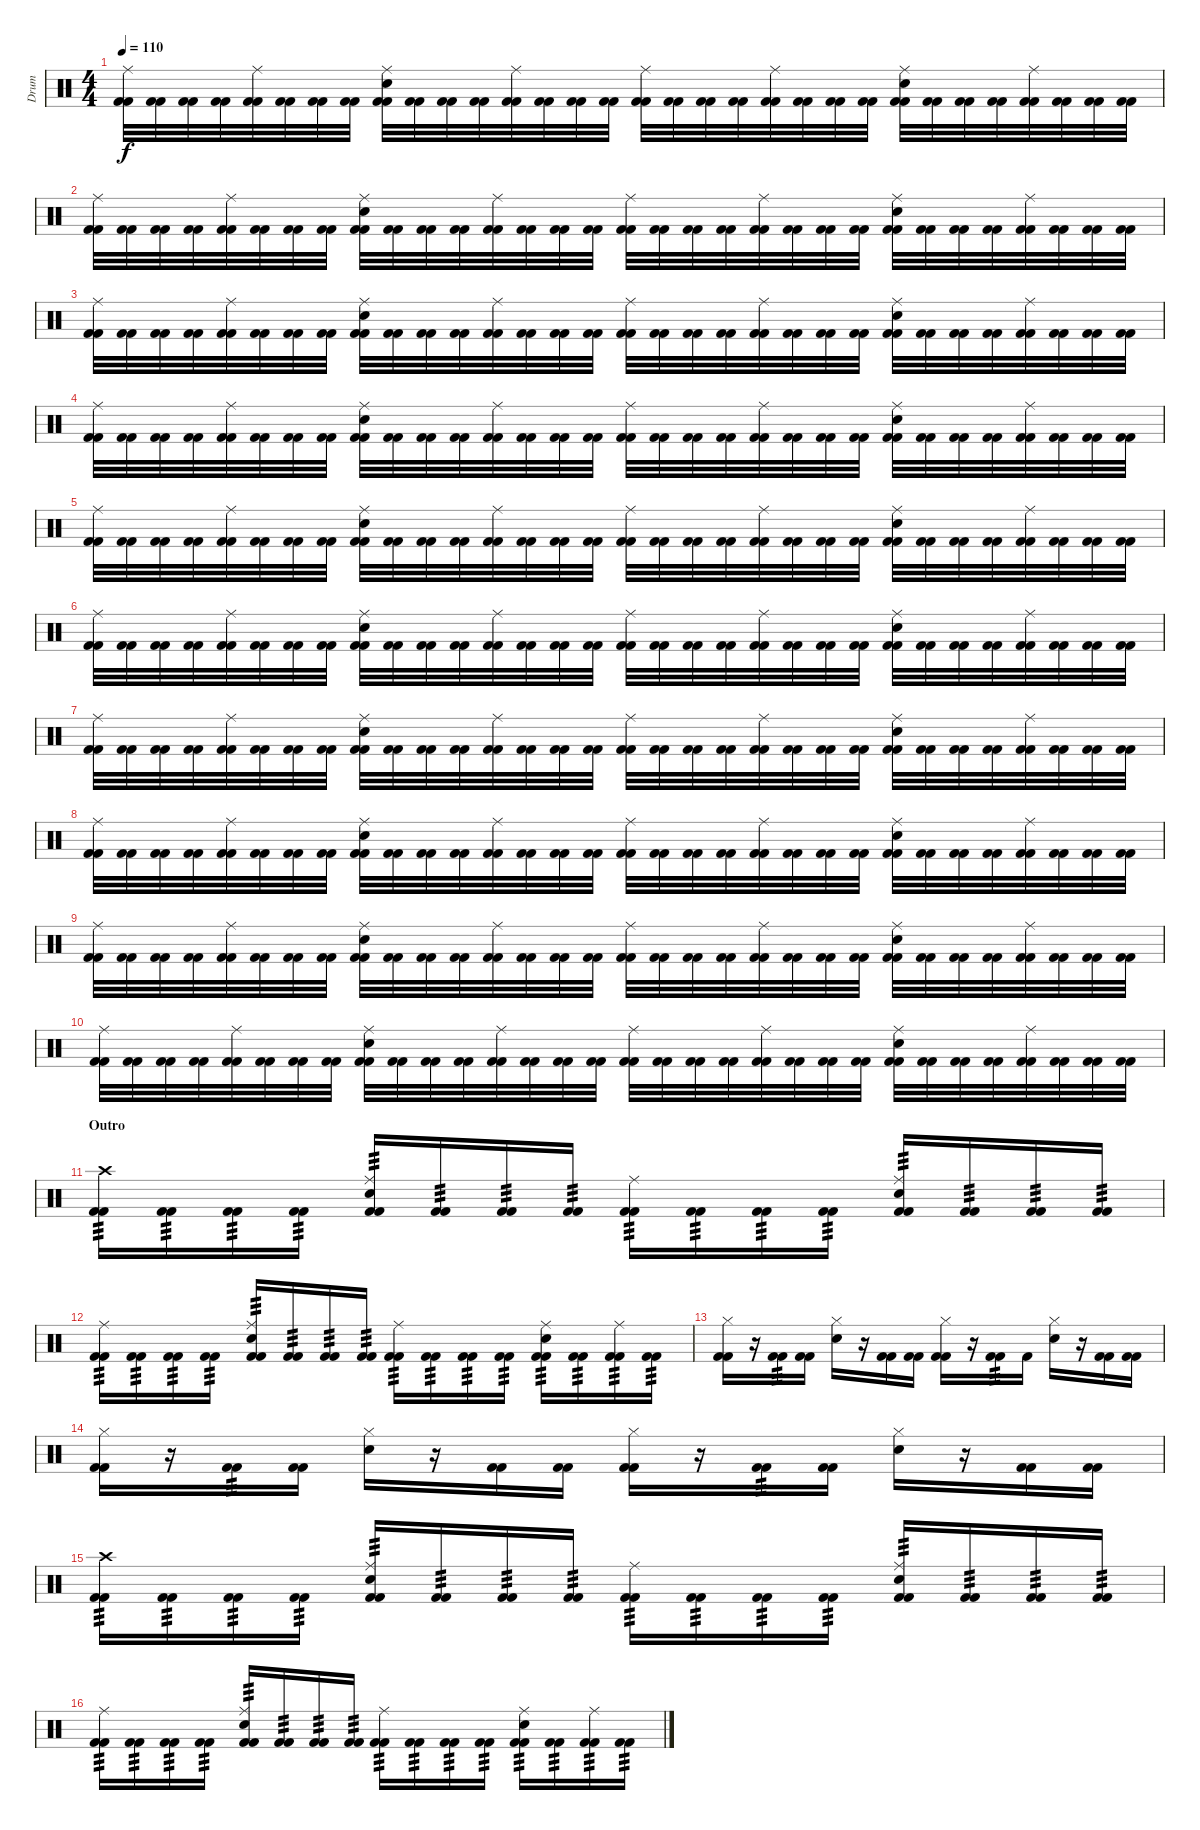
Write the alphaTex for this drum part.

\track ("Drum" "Drum") {instrument percussion}
\staff {score}
\articulation defaults
\ts (4 4)
\tempo 110
\clef neutral
\ks c
("Kick (hit) 2" "Kick (hit) 2" "Ride (middle)").32{dy f} ("Kick (hit) 2" "Kick (hit) 2").32 ("Kick (hit) 2" "Kick (hit) 2").32 ("Kick (hit) 2" "Kick (hit) 2").32 ("Kick (hit) 2" "Kick (hit) 2" "Ride (middle)").32 ("Kick (hit) 2" "Kick (hit) 2").32 ("Kick (hit) 2" "Kick (hit) 2").32 ("Kick (hit) 2" "Kick (hit) 2").32 ("Kick (hit) 2" "Kick (hit) 2" "Electric Snare (hit)" "Ride (middle)").32 ("Kick (hit) 2" "Kick (hit) 2").32 ("Kick (hit) 2" "Kick (hit) 2").32 ("Kick (hit) 2" "Kick (hit) 2").32 ("Kick (hit) 2" "Kick (hit) 2" "Ride (middle)").32 ("Kick (hit) 2" "Kick (hit) 2").32 ("Kick (hit) 2" "Kick (hit) 2").32 ("Kick (hit) 2" "Kick (hit) 2").32 ("Kick (hit) 2" "Kick (hit) 2" "Ride (middle)").32 ("Kick (hit) 2" "Kick (hit) 2").32 ("Kick (hit) 2" "Kick (hit) 2").32 ("Kick (hit) 2" "Kick (hit) 2").32 ("Kick (hit) 2" "Kick (hit) 2" "Ride (middle)").32 ("Kick (hit) 2" "Kick (hit) 2").32 ("Kick (hit) 2" "Kick (hit) 2").32 ("Kick (hit) 2" "Kick (hit) 2").32 ("Kick (hit) 2" "Kick (hit) 2" "Electric Snare (hit)" "Ride (middle)").32 ("Kick (hit) 2" "Kick (hit) 2").32 ("Kick (hit) 2" "Kick (hit) 2").32 ("Kick (hit) 2" "Kick (hit) 2").32 ("Kick (hit) 2" "Kick (hit) 2" "Ride (middle)").32 ("Kick (hit) 2" "Kick (hit) 2").32 ("Kick (hit) 2" "Kick (hit) 2").32 ("Kick (hit) 2" "Kick (hit) 2").32 |
("Kick (hit) 2" "Kick (hit) 2" "Ride (middle)").32 ("Kick (hit) 2" "Kick (hit) 2").32 ("Kick (hit) 2" "Kick (hit) 2").32 ("Kick (hit) 2" "Kick (hit) 2").32 ("Kick (hit) 2" "Kick (hit) 2" "Ride (middle)").32 ("Kick (hit) 2" "Kick (hit) 2").32 ("Kick (hit) 2" "Kick (hit) 2").32 ("Kick (hit) 2" "Kick (hit) 2").32 ("Kick (hit) 2" "Kick (hit) 2" "Electric Snare (hit)" "Ride (middle)").32 ("Kick (hit) 2" "Kick (hit) 2").32 ("Kick (hit) 2" "Kick (hit) 2").32 ("Kick (hit) 2" "Kick (hit) 2").32 ("Kick (hit) 2" "Kick (hit) 2" "Ride (middle)").32 ("Kick (hit) 2" "Kick (hit) 2").32 ("Kick (hit) 2" "Kick (hit) 2").32 ("Kick (hit) 2" "Kick (hit) 2").32 ("Kick (hit) 2" "Kick (hit) 2" "Ride (middle)").32 ("Kick (hit) 2" "Kick (hit) 2").32 ("Kick (hit) 2" "Kick (hit) 2").32 ("Kick (hit) 2" "Kick (hit) 2").32 ("Kick (hit) 2" "Kick (hit) 2" "Ride (middle)").32 ("Kick (hit) 2" "Kick (hit) 2").32 ("Kick (hit) 2" "Kick (hit) 2").32 ("Kick (hit) 2" "Kick (hit) 2").32 ("Kick (hit) 2" "Kick (hit) 2" "Electric Snare (hit)" "Ride (middle)").32 ("Kick (hit) 2" "Kick (hit) 2").32 ("Kick (hit) 2" "Kick (hit) 2").32 ("Kick (hit) 2" "Kick (hit) 2").32 ("Kick (hit) 2" "Kick (hit) 2" "Ride (middle)").32 ("Kick (hit) 2" "Kick (hit) 2").32 ("Kick (hit) 2" "Kick (hit) 2").32 ("Kick (hit) 2" "Kick (hit) 2").32 |
("Kick (hit) 2" "Kick (hit) 2" "Ride (middle)").32 ("Kick (hit) 2" "Kick (hit) 2").32 ("Kick (hit) 2" "Kick (hit) 2").32 ("Kick (hit) 2" "Kick (hit) 2").32 ("Kick (hit) 2" "Kick (hit) 2" "Ride (middle)").32 ("Kick (hit) 2" "Kick (hit) 2").32 ("Kick (hit) 2" "Kick (hit) 2").32 ("Kick (hit) 2" "Kick (hit) 2").32 ("Kick (hit) 2" "Kick (hit) 2" "Electric Snare (hit)" "Ride (middle)").32 ("Kick (hit) 2" "Kick (hit) 2").32 ("Kick (hit) 2" "Kick (hit) 2").32 ("Kick (hit) 2" "Kick (hit) 2").32 ("Kick (hit) 2" "Kick (hit) 2" "Ride (middle)").32 ("Kick (hit) 2" "Kick (hit) 2").32 ("Kick (hit) 2" "Kick (hit) 2").32 ("Kick (hit) 2" "Kick (hit) 2").32 ("Kick (hit) 2" "Kick (hit) 2" "Ride (middle)").32 ("Kick (hit) 2" "Kick (hit) 2").32 ("Kick (hit) 2" "Kick (hit) 2").32 ("Kick (hit) 2" "Kick (hit) 2").32 ("Kick (hit) 2" "Kick (hit) 2" "Ride (middle)").32 ("Kick (hit) 2" "Kick (hit) 2").32 ("Kick (hit) 2" "Kick (hit) 2").32 ("Kick (hit) 2" "Kick (hit) 2").32 ("Kick (hit) 2" "Kick (hit) 2" "Electric Snare (hit)" "Ride (middle)").32 ("Kick (hit) 2" "Kick (hit) 2").32 ("Kick (hit) 2" "Kick (hit) 2").32 ("Kick (hit) 2" "Kick (hit) 2").32 ("Kick (hit) 2" "Kick (hit) 2" "Ride (middle)").32 ("Kick (hit) 2" "Kick (hit) 2").32 ("Kick (hit) 2" "Kick (hit) 2").32 ("Kick (hit) 2" "Kick (hit) 2").32 |
("Kick (hit) 2" "Kick (hit) 2" "Ride (middle)").32 ("Kick (hit) 2" "Kick (hit) 2").32 ("Kick (hit) 2" "Kick (hit) 2").32 ("Kick (hit) 2" "Kick (hit) 2").32 ("Kick (hit) 2" "Kick (hit) 2" "Ride (middle)").32 ("Kick (hit) 2" "Kick (hit) 2").32 ("Kick (hit) 2" "Kick (hit) 2").32 ("Kick (hit) 2" "Kick (hit) 2").32 ("Kick (hit) 2" "Kick (hit) 2" "Electric Snare (hit)" "Ride (middle)").32 ("Kick (hit) 2" "Kick (hit) 2").32 ("Kick (hit) 2" "Kick (hit) 2").32 ("Kick (hit) 2" "Kick (hit) 2").32 ("Kick (hit) 2" "Kick (hit) 2" "Ride (middle)").32 ("Kick (hit) 2" "Kick (hit) 2").32 ("Kick (hit) 2" "Kick (hit) 2").32 ("Kick (hit) 2" "Kick (hit) 2").32 ("Kick (hit) 2" "Kick (hit) 2" "Ride (middle)").32 ("Kick (hit) 2" "Kick (hit) 2").32 ("Kick (hit) 2" "Kick (hit) 2").32 ("Kick (hit) 2" "Kick (hit) 2").32 ("Kick (hit) 2" "Kick (hit) 2" "Ride (middle)").32 ("Kick (hit) 2" "Kick (hit) 2").32 ("Kick (hit) 2" "Kick (hit) 2").32 ("Kick (hit) 2" "Kick (hit) 2").32 ("Kick (hit) 2" "Kick (hit) 2" "Electric Snare (hit)" "Ride (middle)").32 ("Kick (hit) 2" "Kick (hit) 2").32 ("Kick (hit) 2" "Kick (hit) 2").32 ("Kick (hit) 2" "Kick (hit) 2").32 ("Kick (hit) 2" "Kick (hit) 2" "Ride (middle)").32 ("Kick (hit) 2" "Kick (hit) 2").32 ("Kick (hit) 2" "Kick (hit) 2").32 ("Kick (hit) 2" "Kick (hit) 2").32 |
("Kick (hit) 2" "Kick (hit) 2" "Ride (middle)").32 ("Kick (hit) 2" "Kick (hit) 2").32 ("Kick (hit) 2" "Kick (hit) 2").32 ("Kick (hit) 2" "Kick (hit) 2").32 ("Kick (hit) 2" "Kick (hit) 2" "Ride (middle)").32 ("Kick (hit) 2" "Kick (hit) 2").32 ("Kick (hit) 2" "Kick (hit) 2").32 ("Kick (hit) 2" "Kick (hit) 2").32 ("Kick (hit) 2" "Kick (hit) 2" "Electric Snare (hit)" "Ride (middle)").32 ("Kick (hit) 2" "Kick (hit) 2").32 ("Kick (hit) 2" "Kick (hit) 2").32 ("Kick (hit) 2" "Kick (hit) 2").32 ("Kick (hit) 2" "Kick (hit) 2" "Ride (middle)").32 ("Kick (hit) 2" "Kick (hit) 2").32 ("Kick (hit) 2" "Kick (hit) 2").32 ("Kick (hit) 2" "Kick (hit) 2").32 ("Kick (hit) 2" "Kick (hit) 2" "Ride (middle)").32 ("Kick (hit) 2" "Kick (hit) 2").32 ("Kick (hit) 2" "Kick (hit) 2").32 ("Kick (hit) 2" "Kick (hit) 2").32 ("Kick (hit) 2" "Kick (hit) 2" "Ride (middle)").32 ("Kick (hit) 2" "Kick (hit) 2").32 ("Kick (hit) 2" "Kick (hit) 2").32 ("Kick (hit) 2" "Kick (hit) 2").32 ("Kick (hit) 2" "Kick (hit) 2" "Electric Snare (hit)" "Ride (middle)").32 ("Kick (hit) 2" "Kick (hit) 2").32 ("Kick (hit) 2" "Kick (hit) 2").32 ("Kick (hit) 2" "Kick (hit) 2").32 ("Kick (hit) 2" "Kick (hit) 2" "Ride (middle)").32 ("Kick (hit) 2" "Kick (hit) 2").32 ("Kick (hit) 2" "Kick (hit) 2").32 ("Kick (hit) 2" "Kick (hit) 2").32 |
("Kick (hit) 2" "Kick (hit) 2" "Ride (middle)").32 ("Kick (hit) 2" "Kick (hit) 2").32 ("Kick (hit) 2" "Kick (hit) 2").32 ("Kick (hit) 2" "Kick (hit) 2").32 ("Kick (hit) 2" "Kick (hit) 2" "Ride (middle)").32 ("Kick (hit) 2" "Kick (hit) 2").32 ("Kick (hit) 2" "Kick (hit) 2").32 ("Kick (hit) 2" "Kick (hit) 2").32 ("Kick (hit) 2" "Kick (hit) 2" "Electric Snare (hit)" "Ride (middle)").32 ("Kick (hit) 2" "Kick (hit) 2").32 ("Kick (hit) 2" "Kick (hit) 2").32 ("Kick (hit) 2" "Kick (hit) 2").32 ("Kick (hit) 2" "Kick (hit) 2" "Ride (middle)").32 ("Kick (hit) 2" "Kick (hit) 2").32 ("Kick (hit) 2" "Kick (hit) 2").32 ("Kick (hit) 2" "Kick (hit) 2").32 ("Kick (hit) 2" "Kick (hit) 2" "Ride (middle)").32 ("Kick (hit) 2" "Kick (hit) 2").32 ("Kick (hit) 2" "Kick (hit) 2").32 ("Kick (hit) 2" "Kick (hit) 2").32 ("Kick (hit) 2" "Kick (hit) 2" "Ride (middle)").32 ("Kick (hit) 2" "Kick (hit) 2").32 ("Kick (hit) 2" "Kick (hit) 2").32 ("Kick (hit) 2" "Kick (hit) 2").32 ("Kick (hit) 2" "Kick (hit) 2" "Electric Snare (hit)" "Ride (middle)").32 ("Kick (hit) 2" "Kick (hit) 2").32 ("Kick (hit) 2" "Kick (hit) 2").32 ("Kick (hit) 2" "Kick (hit) 2").32 ("Kick (hit) 2" "Kick (hit) 2" "Ride (middle)").32 ("Kick (hit) 2" "Kick (hit) 2").32 ("Kick (hit) 2" "Kick (hit) 2").32 ("Kick (hit) 2" "Kick (hit) 2").32 |
("Kick (hit) 2" "Kick (hit) 2" "Ride (middle)").32 ("Kick (hit) 2" "Kick (hit) 2").32 ("Kick (hit) 2" "Kick (hit) 2").32 ("Kick (hit) 2" "Kick (hit) 2").32 ("Kick (hit) 2" "Kick (hit) 2" "Ride (middle)").32 ("Kick (hit) 2" "Kick (hit) 2").32 ("Kick (hit) 2" "Kick (hit) 2").32 ("Kick (hit) 2" "Kick (hit) 2").32 ("Kick (hit) 2" "Kick (hit) 2" "Electric Snare (hit)" "Ride (middle)").32 ("Kick (hit) 2" "Kick (hit) 2").32 ("Kick (hit) 2" "Kick (hit) 2").32 ("Kick (hit) 2" "Kick (hit) 2").32 ("Kick (hit) 2" "Kick (hit) 2" "Ride (middle)").32 ("Kick (hit) 2" "Kick (hit) 2").32 ("Kick (hit) 2" "Kick (hit) 2").32 ("Kick (hit) 2" "Kick (hit) 2").32 ("Kick (hit) 2" "Kick (hit) 2" "Ride (middle)").32 ("Kick (hit) 2" "Kick (hit) 2").32 ("Kick (hit) 2" "Kick (hit) 2").32 ("Kick (hit) 2" "Kick (hit) 2").32 ("Kick (hit) 2" "Kick (hit) 2" "Ride (middle)").32 ("Kick (hit) 2" "Kick (hit) 2").32 ("Kick (hit) 2" "Kick (hit) 2").32 ("Kick (hit) 2" "Kick (hit) 2").32 ("Kick (hit) 2" "Kick (hit) 2" "Electric Snare (hit)" "Ride (middle)").32 ("Kick (hit) 2" "Kick (hit) 2").32 ("Kick (hit) 2" "Kick (hit) 2").32 ("Kick (hit) 2" "Kick (hit) 2").32 ("Kick (hit) 2" "Kick (hit) 2" "Ride (middle)").32 ("Kick (hit) 2" "Kick (hit) 2").32 ("Kick (hit) 2" "Kick (hit) 2").32 ("Kick (hit) 2" "Kick (hit) 2").32 |
("Kick (hit) 2" "Kick (hit) 2" "Ride (middle)").32 ("Kick (hit) 2" "Kick (hit) 2").32 ("Kick (hit) 2" "Kick (hit) 2").32 ("Kick (hit) 2" "Kick (hit) 2").32 ("Kick (hit) 2" "Kick (hit) 2" "Ride (middle)").32 ("Kick (hit) 2" "Kick (hit) 2").32 ("Kick (hit) 2" "Kick (hit) 2").32 ("Kick (hit) 2" "Kick (hit) 2").32 ("Kick (hit) 2" "Kick (hit) 2" "Electric Snare (hit)" "Ride (middle)").32 ("Kick (hit) 2" "Kick (hit) 2").32 ("Kick (hit) 2" "Kick (hit) 2").32 ("Kick (hit) 2" "Kick (hit) 2").32 ("Kick (hit) 2" "Kick (hit) 2" "Ride (middle)").32 ("Kick (hit) 2" "Kick (hit) 2").32 ("Kick (hit) 2" "Kick (hit) 2").32 ("Kick (hit) 2" "Kick (hit) 2").32 ("Kick (hit) 2" "Kick (hit) 2" "Ride (middle)").32 ("Kick (hit) 2" "Kick (hit) 2").32 ("Kick (hit) 2" "Kick (hit) 2").32 ("Kick (hit) 2" "Kick (hit) 2").32 ("Kick (hit) 2" "Kick (hit) 2" "Ride (middle)").32 ("Kick (hit) 2" "Kick (hit) 2").32 ("Kick (hit) 2" "Kick (hit) 2").32 ("Kick (hit) 2" "Kick (hit) 2").32 ("Kick (hit) 2" "Kick (hit) 2" "Electric Snare (hit)" "Ride (middle)").32 ("Kick (hit) 2" "Kick (hit) 2").32 ("Kick (hit) 2" "Kick (hit) 2").32 ("Kick (hit) 2" "Kick (hit) 2").32 ("Kick (hit) 2" "Kick (hit) 2" "Ride (middle)").32 ("Kick (hit) 2" "Kick (hit) 2").32 ("Kick (hit) 2" "Kick (hit) 2").32 ("Kick (hit) 2" "Kick (hit) 2").32 |
("Kick (hit) 2" "Kick (hit) 2" "Ride (middle)").32 ("Kick (hit) 2" "Kick (hit) 2").32 ("Kick (hit) 2" "Kick (hit) 2").32 ("Kick (hit) 2" "Kick (hit) 2").32 ("Kick (hit) 2" "Kick (hit) 2" "Ride (middle)").32 ("Kick (hit) 2" "Kick (hit) 2").32 ("Kick (hit) 2" "Kick (hit) 2").32 ("Kick (hit) 2" "Kick (hit) 2").32 ("Kick (hit) 2" "Kick (hit) 2" "Electric Snare (hit)" "Ride (middle)").32 ("Kick (hit) 2" "Kick (hit) 2").32 ("Kick (hit) 2" "Kick (hit) 2").32 ("Kick (hit) 2" "Kick (hit) 2").32 ("Kick (hit) 2" "Kick (hit) 2" "Ride (middle)").32 ("Kick (hit) 2" "Kick (hit) 2").32 ("Kick (hit) 2" "Kick (hit) 2").32 ("Kick (hit) 2" "Kick (hit) 2").32 ("Kick (hit) 2" "Kick (hit) 2" "Ride (middle)").32 ("Kick (hit) 2" "Kick (hit) 2").32 ("Kick (hit) 2" "Kick (hit) 2").32 ("Kick (hit) 2" "Kick (hit) 2").32 ("Kick (hit) 2" "Kick (hit) 2" "Ride (middle)").32 ("Kick (hit) 2" "Kick (hit) 2").32 ("Kick (hit) 2" "Kick (hit) 2").32 ("Kick (hit) 2" "Kick (hit) 2").32 ("Kick (hit) 2" "Kick (hit) 2" "Electric Snare (hit)" "Ride (middle)").32 ("Kick (hit) 2" "Kick (hit) 2").32 ("Kick (hit) 2" "Kick (hit) 2").32 ("Kick (hit) 2" "Kick (hit) 2").32 ("Kick (hit) 2" "Kick (hit) 2" "Ride (middle)").32 ("Kick (hit) 2" "Kick (hit) 2").32 ("Kick (hit) 2" "Kick (hit) 2").32 ("Kick (hit) 2" "Kick (hit) 2").32 |
("Kick (hit) 2" "Kick (hit) 2" "Ride (middle)").32 ("Kick (hit) 2" "Kick (hit) 2").32 ("Kick (hit) 2" "Kick (hit) 2").32 ("Kick (hit) 2" "Kick (hit) 2").32 ("Kick (hit) 2" "Kick (hit) 2" "Ride (middle)").32 ("Kick (hit) 2" "Kick (hit) 2").32 ("Kick (hit) 2" "Kick (hit) 2").32 ("Kick (hit) 2" "Kick (hit) 2").32 ("Kick (hit) 2" "Kick (hit) 2" "Electric Snare (hit)" "Ride (middle)").32 ("Kick (hit) 2" "Kick (hit) 2").32 ("Kick (hit) 2" "Kick (hit) 2").32 ("Kick (hit) 2" "Kick (hit) 2").32 ("Kick (hit) 2" "Kick (hit) 2" "Ride (middle)").32 ("Kick (hit) 2" "Kick (hit) 2").32 ("Kick (hit) 2" "Kick (hit) 2").32 ("Kick (hit) 2" "Kick (hit) 2").32 ("Kick (hit) 2" "Kick (hit) 2" "Ride (middle)").32 ("Kick (hit) 2" "Kick (hit) 2").32 ("Kick (hit) 2" "Kick (hit) 2").32 ("Kick (hit) 2" "Kick (hit) 2").32 ("Kick (hit) 2" "Kick (hit) 2" "Ride (middle)").32 ("Kick (hit) 2" "Kick (hit) 2").32 ("Kick (hit) 2" "Kick (hit) 2").32 ("Kick (hit) 2" "Kick (hit) 2").32 ("Kick (hit) 2" "Kick (hit) 2" "Electric Snare (hit)" "Ride (middle)").32 ("Kick (hit) 2" "Kick (hit) 2").32 ("Kick (hit) 2" "Kick (hit) 2").32 ("Kick (hit) 2" "Kick (hit) 2").32 ("Kick (hit) 2" "Kick (hit) 2" "Ride (middle)").32 ("Kick (hit) 2" "Kick (hit) 2").32 ("Kick (hit) 2" "Kick (hit) 2").32 ("Kick (hit) 2" "Kick (hit) 2").32 |
\section ("" "Outro")
("Kick (hit) 2" "Kick (hit) 2" "Crash high (hit)").16{tp 3 volume 15} ("Kick (hit) 2" "Kick (hit) 2").16{tp 3} ("Kick (hit) 2" "Kick (hit) 2").16{tp 3} ("Kick (hit) 2" "Kick (hit) 2").16{tp 3} ("Kick (hit) 2" "Kick (hit) 2" "Electric Snare (hit)" "Ride (middle)").16{tp 3 volume 14} ("Kick (hit) 2" "Kick (hit) 2").16{tp 3} ("Kick (hit) 2" "Kick (hit) 2").16{tp 3} ("Kick (hit) 2" "Kick (hit) 2").16{tp 3} ("Kick (hit) 2" "Kick (hit) 2" "Ride (middle)").16{tp 3 volume 13} ("Kick (hit) 2" "Kick (hit) 2").16{tp 3} ("Kick (hit) 2" "Kick (hit) 2").16{tp 3} ("Kick (hit) 2" "Kick (hit) 2").16{tp 3} ("Kick (hit) 2" "Kick (hit) 2" "Electric Snare (hit)" "Ride (middle)").16{tp 3 volume 12} ("Kick (hit) 2" "Kick (hit) 2").16{tp 3} ("Kick (hit) 2" "Kick (hit) 2").16{tp 3} ("Kick (hit) 2" "Kick (hit) 2").16{tp 3} |
("Kick (hit) 2" "Kick (hit) 2" "Ride (middle)").16{tp 3 volume 11} ("Kick (hit) 2" "Kick (hit) 2").16{tp 3} ("Kick (hit) 2" "Kick (hit) 2").16{tp 3} ("Kick (hit) 2" "Kick (hit) 2").16{tp 3} ("Kick (hit) 2" "Kick (hit) 2" "Electric Snare (hit)" "Ride (middle)").16{tp 3} ("Kick (hit) 2" "Kick (hit) 2").16{tp 3} ("Kick (hit) 2" "Kick (hit) 2").16{tp 3} ("Kick (hit) 2" "Kick (hit) 2").16{tp 3} ("Kick (hit) 2" "Kick (hit) 2" "Ride (middle)").16{tp 3 volume 10} ("Kick (hit) 2" "Kick (hit) 2").16{tp 3} ("Kick (hit) 2" "Kick (hit) 2").16{tp 3} ("Kick (hit) 2" "Kick (hit) 2").16{tp 3} ("Kick (hit) 2" "Kick (hit) 2" "Electric Snare (hit)" "Ride (middle)").16{tp 3} ("Kick (hit) 2" "Kick (hit) 2").16{tp 3} ("Kick (hit) 2" "Kick (hit) 2" "Ride (middle)").16{tp 3} ("Kick (hit) 2" "Kick (hit) 2").16{tp 3} |
("Kick (hit) 2" "Kick (hit) 2" "Hi-Hat (closed)").16{volume 8} r.16 ("Kick (hit) 2" "Kick (hit) 2").16{tp 3} ("Kick (hit) 2" "Kick (hit) 2").16 ("Electric Snare (hit)" "Hi-Hat (closed)").16 r.16 ("Kick (hit) 2" "Kick (hit) 2").16 ("Kick (hit) 2" "Kick (hit) 2").16 ("Kick (hit) 2" "Kick (hit) 2" "Hi-Hat (closed)").16{volume 7} r.16 ("Kick (hit) 2" "Kick (hit) 2").16{tp 3} "Kick (hit) 2".16 ("Electric Snare (hit)" "Hi-Hat (closed)").16 r.16 ("Kick (hit) 2" "Kick (hit) 2").16 ("Kick (hit) 2" "Kick (hit) 2").16 |
("Kick (hit) 2" "Kick (hit) 2" "Hi-Hat (closed)").16{volume 6} r.16 ("Kick (hit) 2" "Kick (hit) 2").16{tp 3} ("Kick (hit) 2" "Kick (hit) 2").16 ("Electric Snare (hit)" "Hi-Hat (closed)").16{volume 5} r.16 ("Kick (hit) 2" "Kick (hit) 2").16 ("Kick (hit) 2" "Kick (hit) 2").16 ("Kick (hit) 2" "Kick (hit) 2" "Hi-Hat (closed)").16{volume 4} r.16 ("Kick (hit) 2" "Kick (hit) 2").16{tp 3} ("Kick (hit) 2" "Kick (hit) 2").16 ("Electric Snare (hit)" "Hi-Hat (closed)").16{volume 2} r.16 ("Kick (hit) 2" "Kick (hit) 2").16 ("Kick (hit) 2" "Kick (hit) 2").16 |
("Kick (hit) 2" "Kick (hit) 2" "Crash high (hit)").16{tp 3} ("Kick (hit) 2" "Kick (hit) 2").16{tp 3} ("Kick (hit) 2" "Kick (hit) 2").16{tp 3} ("Kick (hit) 2" "Kick (hit) 2").16{tp 3} ("Kick (hit) 2" "Kick (hit) 2" "Electric Snare (hit)" "Ride (middle)").16{tp 3} ("Kick (hit) 2" "Kick (hit) 2").16{tp 3} ("Kick (hit) 2" "Kick (hit) 2").16{tp 3} ("Kick (hit) 2" "Kick (hit) 2").16{tp 3} ("Kick (hit) 2" "Kick (hit) 2" "Ride (middle)").16{tp 3} ("Kick (hit) 2" "Kick (hit) 2").16{tp 3} ("Kick (hit) 2" "Kick (hit) 2").16{tp 3} ("Kick (hit) 2" "Kick (hit) 2").16{tp 3} ("Kick (hit) 2" "Kick (hit) 2" "Electric Snare (hit)" "Ride (middle)").16{tp 3} ("Kick (hit) 2" "Kick (hit) 2").16{tp 3} ("Kick (hit) 2" "Kick (hit) 2").16{tp 3} ("Kick (hit) 2" "Kick (hit) 2").16{tp 3} |
("Kick (hit) 2" "Kick (hit) 2" "Ride (middle)").16{tp 3 volume 1} ("Kick (hit) 2" "Kick (hit) 2").16{tp 3} ("Kick (hit) 2" "Kick (hit) 2").16{tp 3} ("Kick (hit) 2" "Kick (hit) 2").16{tp 3} ("Kick (hit) 2" "Kick (hit) 2" "Electric Snare (hit)" "Ride (middle)").16{tp 3} ("Kick (hit) 2" "Kick (hit) 2").16{tp 3} ("Kick (hit) 2" "Kick (hit) 2").16{tp 3} ("Kick (hit) 2" "Kick (hit) 2").16{tp 3} ("Kick (hit) 2" "Kick (hit) 2" "Ride (middle)").16{tp 3} ("Kick (hit) 2" "Kick (hit) 2").16{tp 3} ("Kick (hit) 2" "Kick (hit) 2").16{tp 3} ("Kick (hit) 2" "Kick (hit) 2").16{tp 3} ("Kick (hit) 2" "Kick (hit) 2" "Electric Snare (hit)" "Ride (middle)").16{tp 3} ("Kick (hit) 2" "Kick (hit) 2").16{tp 3} ("Kick (hit) 2" "Kick (hit) 2" "Ride (middle)").16{tp 3} ("Kick (hit) 2" "Kick (hit) 2").16{tp 3}
